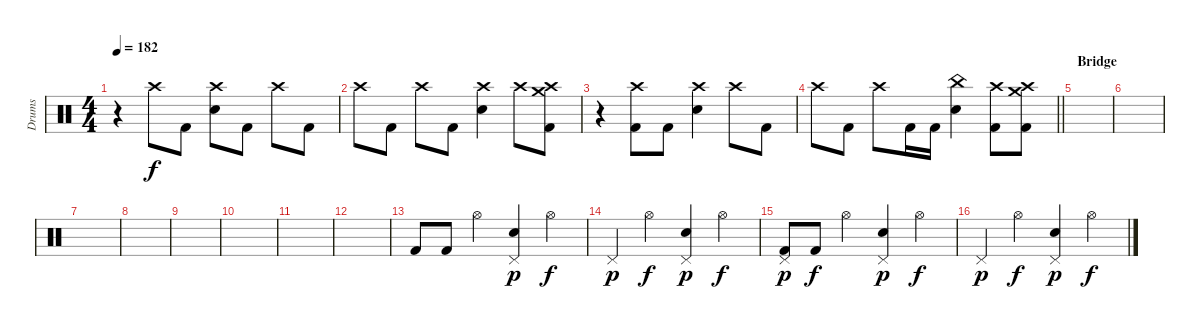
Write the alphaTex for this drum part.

\track ("Drums" "Drums") {instrument percussion}
\staff {score}
\articulation defaults
\ts (4 4)
\tempo 182
\clef neutral
\ks c
r.4{dy f} "Crash high (hit)".8 "Kick (hit) 2".8 ("Crash high (hit)" "Snare (hit) 2").8 "Kick (hit) 2".8 "Crash high (hit)".8 "Kick (hit) 2".8 |
"Crash high (hit)".8 "Kick (hit) 2".8 "Crash high (hit)".8 "Kick (hit) 2".8 ("Crash high (hit)" "Snare (hit) 2").4 "Crash high (hit)".8 ("Crash medium (hit)" "Crash high (hit)" "Kick (hit) 2").8 |
r.4 ("Crash high (hit)" "Kick (hit) 2").8 "Kick (hit) 2".8 ("Crash high (hit)" "Snare (hit) 2").4 "Crash high (hit)".8 "Kick (hit) 2".8 |
\barLineRight lightlight "Crash high (hit)".8 "Kick (hit) 2".8 "Crash high (hit)".8 "Kick (hit) 2".16 "Kick (hit) 2".16
("China (hit)" "Snare (hit) 2").4 ("Crash high (hit)" "Kick (hit) 2").8 ("Crash medium (hit)" "Crash high (hit)" "Kick (hit) 2").8 |
\section ("" "Bridge")
|
|
|
|
|
|
|
|
"Kick (hit) 2".8 "Kick (hit) 2".8 "Hi-Hat (open)".4 ("Pedal Hi-Hat (hit)" "Snare (hit) 2").4{dy p} "Hi-Hat (open)".4{dy f} |
"Pedal Hi-Hat (hit)".4{dy p} "Hi-Hat (open)".4{dy f} ("Pedal Hi-Hat (hit)" "Snare (hit) 2").4{dy p} "Hi-Hat (open)".4{dy f} |
("Pedal Hi-Hat (hit)" "Kick (hit) 2").8{dy p} "Kick (hit) 2".8{dy f} "Hi-Hat (open)".4 ("Pedal Hi-Hat (hit)" "Snare (hit) 2").4{dy p} "Hi-Hat (open)".4{dy f} |
"Pedal Hi-Hat (hit)".4{dy p} "Hi-Hat (open)".4{dy f} ("Pedal Hi-Hat (hit)" "Snare (hit) 2").4{dy p} "Hi-Hat (open)".4{dy f}
